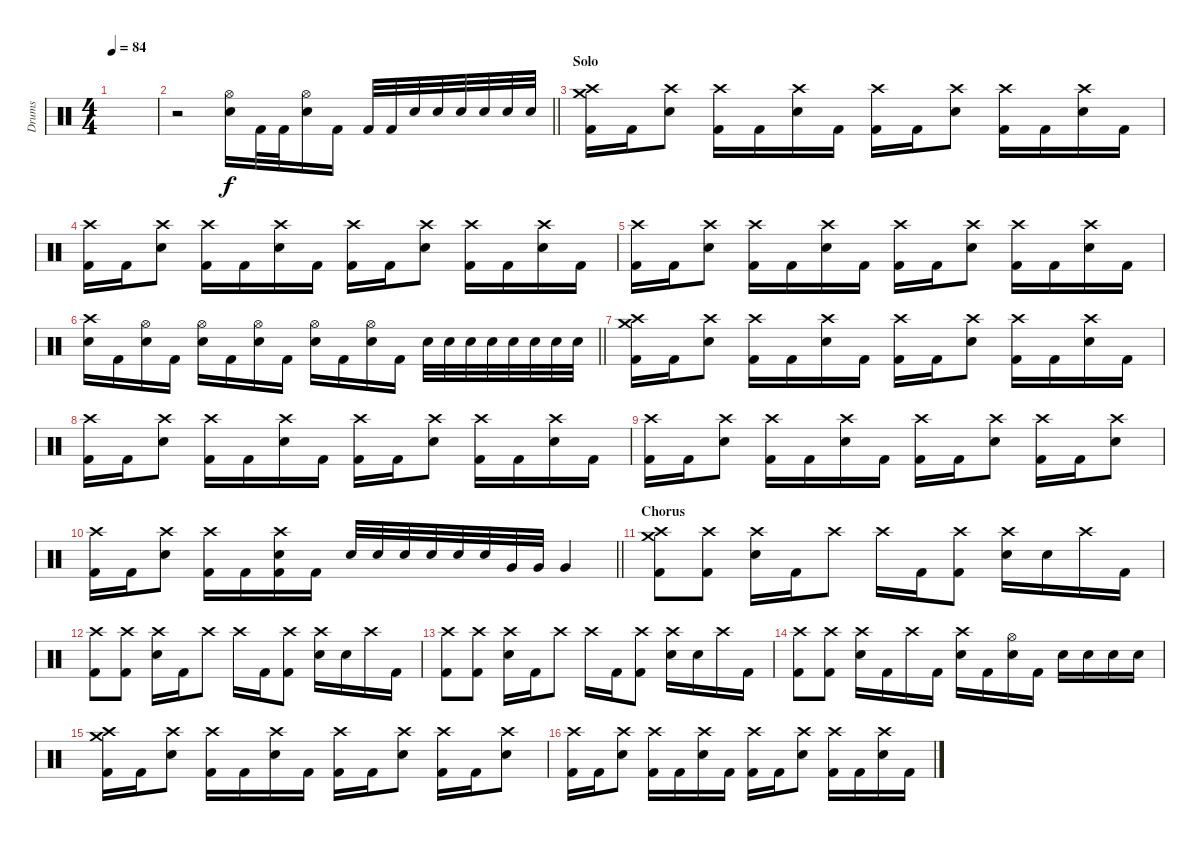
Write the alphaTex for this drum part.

\track ("Drums" "Drums") {instrument percussion}
\staff {score}
\articulation defaults
\ts (4 4)
\tempo 84
\clef neutral
\ks c
|
\barLineRight lightlight
r.2 ("Hi-Hat (open)" "Electric Snare (hit)").16 "Kick (hit) 2".32 "Kick (hit) 2".32 ("Hi-Hat (open)" "Electric Snare (hit)").16 "Kick (hit) 2".16 "Kick (hit) 2".32 "Kick (hit) 2".32 "Electric Snare (hit)".32 "Electric Snare (hit)".32 "Electric Snare (hit)".32 "Electric Snare (hit)".32 "Electric Snare (hit)".32 "Electric Snare (hit)".32 |
\section ("" "Solo")
("Crash medium (hit)" "Crash high (hit)" "Kick (hit) 2").16 "Kick (hit) 2".16 ("Crash high (hit)" "Electric Snare (hit)").8 ("Crash high (hit)" "Kick (hit) 2").16 "Kick (hit) 2".16 ("Crash high (hit)" "Electric Snare (hit)").16 "Kick (hit) 2".16 ("Crash high (hit)" "Kick (hit) 2").16 "Kick (hit) 2".16 ("Crash high (hit)" "Electric Snare (hit)").8 ("Crash high (hit)" "Kick (hit) 2").16 "Kick (hit) 2".16 ("Crash high (hit)" "Electric Snare (hit)").16 "Kick (hit) 2".16 |
("Crash high (hit)" "Kick (hit) 2").16 "Kick (hit) 2".16 ("Crash high (hit)" "Electric Snare (hit)").8 ("Crash high (hit)" "Kick (hit) 2").16 "Kick (hit) 2".16 ("Crash high (hit)" "Electric Snare (hit)").16 "Kick (hit) 2".16 ("Crash high (hit)" "Kick (hit) 2").16 "Kick (hit) 2".16 ("Crash high (hit)" "Electric Snare (hit)").8 ("Crash high (hit)" "Kick (hit) 2").16 "Kick (hit) 2".16 ("Crash high (hit)" "Electric Snare (hit)").16 "Kick (hit) 2".16 |
("Crash high (hit)" "Kick (hit) 2").16 "Kick (hit) 2".16 ("Crash high (hit)" "Electric Snare (hit)").8 ("Crash high (hit)" "Kick (hit) 2").16 "Kick (hit) 2".16 ("Crash high (hit)" "Electric Snare (hit)").16 "Kick (hit) 2".16 ("Crash high (hit)" "Kick (hit) 2").16 "Kick (hit) 2".16 ("Crash high (hit)" "Electric Snare (hit)").8 ("Crash high (hit)" "Kick (hit) 2").16 "Kick (hit) 2".16 ("Crash high (hit)" "Electric Snare (hit)").16 "Kick (hit) 2".16 |
\barLineRight lightlight
("Crash high (hit)" "Electric Snare (hit)").16 "Kick (hit) 2".16 ("Hi-Hat (open)" "Electric Snare (hit)").16 "Kick (hit) 2".16 ("Hi-Hat (open)" "Electric Snare (hit)").16 "Kick (hit) 2".16 ("Hi-Hat (open)" "Electric Snare (hit)").16 "Kick (hit) 2".16 ("Hi-Hat (open)" "Electric Snare (hit)").16 "Kick (hit) 2".16 ("Hi-Hat (open)" "Electric Snare (hit)").16 "Kick (hit) 2".16 "Electric Snare (hit)".32 "Electric Snare (hit)".32 "Electric Snare (hit)".32 "Electric Snare (hit)".32 "Electric Snare (hit)".32 "Electric Snare (hit)".32 "Electric Snare (hit)".32 "Electric Snare (hit)".32 |
("Crash medium (hit)" "Crash high (hit)" "Kick (hit) 2").16 "Kick (hit) 2".16 ("Crash high (hit)" "Electric Snare (hit)").8 ("Crash high (hit)" "Kick (hit) 2").16 "Kick (hit) 2".16 ("Crash high (hit)" "Electric Snare (hit)").16 "Kick (hit) 2".16 ("Crash high (hit)" "Kick (hit) 2").16 "Kick (hit) 2".16 ("Crash high (hit)" "Electric Snare (hit)").8 ("Crash high (hit)" "Kick (hit) 2").16 "Kick (hit) 2".16 ("Crash high (hit)" "Electric Snare (hit)").16 "Kick (hit) 2".16 |
("Crash high (hit)" "Kick (hit) 2").16 "Kick (hit) 2".16 ("Crash high (hit)" "Electric Snare (hit)").8 ("Crash high (hit)" "Kick (hit) 2").16 "Kick (hit) 2".16 ("Crash high (hit)" "Electric Snare (hit)").16 "Kick (hit) 2".16 ("Crash high (hit)" "Kick (hit) 2").16 "Kick (hit) 2".16 ("Crash high (hit)" "Electric Snare (hit)").8 ("Crash high (hit)" "Kick (hit) 2").16 "Kick (hit) 2".16 ("Crash high (hit)" "Electric Snare (hit)").16 "Kick (hit) 2".16 |
("Crash high (hit)" "Kick (hit) 2").16 "Kick (hit) 2".16 ("Crash high (hit)" "Electric Snare (hit)").8 ("Crash high (hit)" "Kick (hit) 2").16 "Kick (hit) 2".16 ("Crash high (hit)" "Electric Snare (hit)").16 "Kick (hit) 2".16 ("Crash high (hit)" "Kick (hit) 2").16 "Kick (hit) 2".16 ("Crash high (hit)" "Electric Snare (hit)").8 ("Crash high (hit)" "Kick (hit) 2").16 "Kick (hit) 2".16 ("Crash high (hit)" "Electric Snare (hit)").8 |
\barLineRight lightlight
("Crash high (hit)" "Kick (hit) 2").16 "Kick (hit) 2".16 ("Crash high (hit)" "Electric Snare (hit)").8 ("Crash high (hit)" "Kick (hit) 2").16 "Kick (hit) 2".16 ("Crash high (hit)" "Electric Snare (hit)" "Kick (hit) 2").16 "Kick (hit) 2".16 "Electric Snare (hit)".32 "Electric Snare (hit)".32 "Electric Snare (hit)".32 "Electric Snare (hit)".32 "Electric Snare (hit)".32 "Electric Snare (hit)".32 "Very Low Tom (hit)".32 "Very Low Tom (hit)".32 "Very Low Tom (hit)".4 |
\section ("" "Chorus")
("Crash medium (hit)" "Crash high (hit)" "Kick (hit) 2").8 ("Crash high (hit)" "Kick (hit) 2").8 ("Crash high (hit)" "Electric Snare (hit)").16 "Kick (hit) 2".16 "Crash high (hit)".8 "Crash high (hit)".16 "Kick (hit) 2".16 ("Crash high (hit)" "Kick (hit) 2").8 ("Crash high (hit)" "Electric Snare (hit)").16 "Electric Snare (hit)".16 "Crash high (hit)".16 "Kick (hit) 2".16 |
("Crash high (hit)" "Kick (hit) 2").8 ("Crash high (hit)" "Kick (hit) 2").8 ("Crash high (hit)" "Electric Snare (hit)").16 "Kick (hit) 2".16 "Crash high (hit)".8 "Crash high (hit)".16 "Kick (hit) 2".16 ("Crash high (hit)" "Kick (hit) 2").8 ("Crash high (hit)" "Electric Snare (hit)").16 "Electric Snare (hit)".16 "Crash high (hit)".16 "Kick (hit) 2".16 |
("Crash high (hit)" "Kick (hit) 2").8 ("Crash high (hit)" "Kick (hit) 2").8 ("Crash high (hit)" "Electric Snare (hit)").16 "Kick (hit) 2".16 "Crash high (hit)".8 "Crash high (hit)".16 "Kick (hit) 2".16 ("Crash high (hit)" "Kick (hit) 2").8 ("Crash high (hit)" "Electric Snare (hit)").16 "Electric Snare (hit)".16 "Crash high (hit)".16 "Kick (hit) 2".16 |
("Crash high (hit)" "Kick (hit) 2").8 ("Crash high (hit)" "Kick (hit) 2").8 ("Crash high (hit)" "Electric Snare (hit)").16 "Kick (hit) 2".16 "Crash high (hit)".16 "Kick (hit) 2".16 ("Crash high (hit)" "Electric Snare (hit)").16 "Kick (hit) 2".16 ("Hi-Hat (open)" "Electric Snare (hit)").16 "Kick (hit) 2".16 "Electric Snare (hit)".16 "Electric Snare (hit)".16 "Electric Snare (hit)".16 "Electric Snare (hit)".16 |
("Crash medium (hit)" "Crash high (hit)" "Kick (hit) 2").16 "Kick (hit) 2".16 ("Crash high (hit)" "Electric Snare (hit)").8 ("Crash high (hit)" "Kick (hit) 2").16 "Kick (hit) 2".16 ("Crash high (hit)" "Electric Snare (hit)").16 "Kick (hit) 2".16 ("Crash high (hit)" "Kick (hit) 2").16 "Kick (hit) 2".16 ("Crash high (hit)" "Electric Snare (hit)").8 ("Crash high (hit)" "Kick (hit) 2").16 "Kick (hit) 2".16 ("Crash high (hit)" "Electric Snare (hit)").8 |
("Crash high (hit)" "Kick (hit) 2").16 "Kick (hit) 2".16 ("Crash high (hit)" "Electric Snare (hit)").8 ("Crash high (hit)" "Kick (hit) 2").16 "Kick (hit) 2".16 ("Crash high (hit)" "Electric Snare (hit)").16 "Kick (hit) 2".16 ("Crash high (hit)" "Kick (hit) 2").16 "Kick (hit) 2".16 ("Crash high (hit)" "Electric Snare (hit)").8 ("Crash high (hit)" "Kick (hit) 2").16 "Kick (hit) 2".16 ("Crash high (hit)" "Electric Snare (hit)").16 "Kick (hit) 2".16
